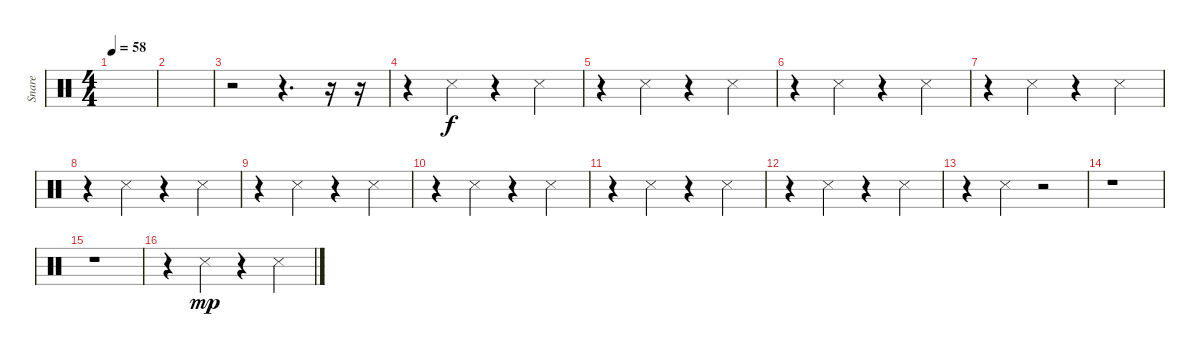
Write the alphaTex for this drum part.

\track ("Snare" "Snare") {instrument percussion}
\staff {score}
\articulation defaults
\ts (4 4)
\tempo 58
\clef neutral
\ks c
|
|
r.2 r.4{d} r.16 r.16 |
r.4 "Snare (side stick) 3".4{dy f} r.4 "Snare (side stick) 3".4 |
r.4 "Snare (side stick) 3".4 r.4 "Snare (side stick) 3".4 |
r.4 "Snare (side stick) 3".4 r.4 "Snare (side stick) 3".4 |
r.4 "Snare (side stick) 3".4 r.4 "Snare (side stick) 3".4 |
r.4 "Snare (side stick) 3".4 r.4 "Snare (side stick) 3".4 |
r.4 "Snare (side stick) 3".4 r.4 "Snare (side stick) 3".4 |
r.4 "Snare (side stick) 3".4 r.4 "Snare (side stick) 3".4 |
r.4 "Snare (side stick) 3".4 r.4 "Snare (side stick) 3".4 |
r.4 "Snare (side stick) 3".4 r.4 "Snare (side stick) 3".4 |
r.4 "Snare (side stick) 3".4 r.2 |
r.1 |
r.1 |
r.4 "Snare (side stick) 3".4{dy mp} r.4 "Snare (side stick) 3".4
